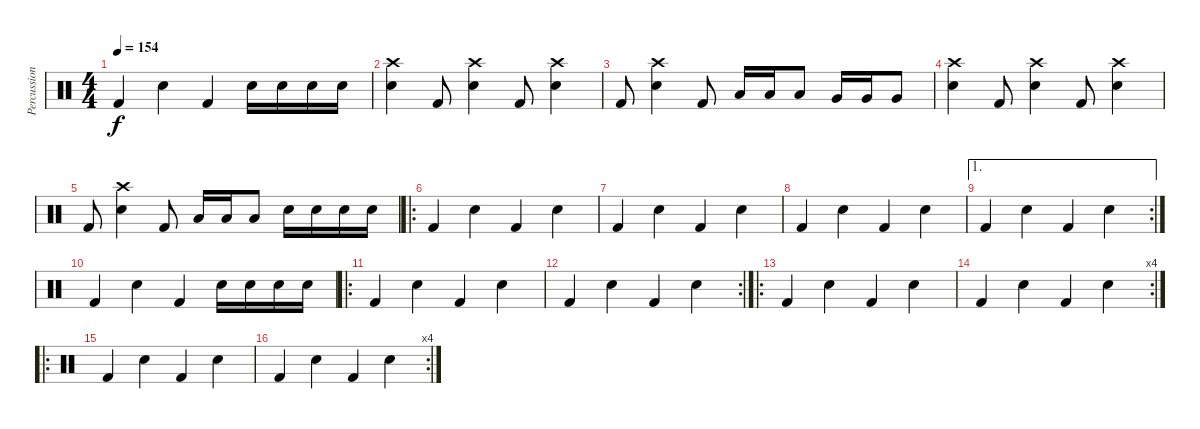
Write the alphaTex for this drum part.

\track ("Percussions" "Percussion") {instrument percussion}
\staff {score}
\articulation defaults
\ts (4 4)
\tempo 154
\clef neutral
\ks c "Kick (hit) 2".4{dy f} "Electric Snare (hit)".4 "Kick (hit) 2".4 "Electric Snare (hit)".16 "Electric Snare (hit)".16 "Electric Snare (hit)".16 "Electric Snare (hit)".16
|
("Crash high (hit)" "Electric Snare (hit)").4 "Kick (hit) 2".8 ("Crash high (hit)" "Electric Snare (hit)").4 "Kick (hit) 2".8 ("Crash high (hit)" "Electric Snare (hit)").4 |
"Kick (hit) 2".8 ("Crash high (hit)" "Electric Snare (hit)").4 "Kick (hit) 2".8 "Low Tom (hit)".16 "Low Tom (hit)".16 "Low Tom (hit)".8 "Very Low Tom (hit)".16 "Very Low Tom (hit)".16 "Very Low Tom (hit)".8 |
("Crash high (hit)" "Electric Snare (hit)").4 "Kick (hit) 2".8 ("Crash high (hit)" "Electric Snare (hit)").4 "Kick (hit) 2".8 ("Crash high (hit)" "Electric Snare (hit)").4 |
"Kick (hit) 2".8 ("Crash high (hit)" "Electric Snare (hit)").4 "Kick (hit) 2".8 "Low Tom (hit)".16 "Low Tom (hit)".16 "Low Tom (hit)".8 "Electric Snare (hit)".16 "Electric Snare (hit)".16 "Electric Snare (hit)".16 "Electric Snare (hit)".16 |
\ro "Kick (hit) 2".4 "Electric Snare (hit)".4 "Kick (hit) 2".4 "Electric Snare (hit)".4
|
"Kick (hit) 2".4 "Electric Snare (hit)".4 "Kick (hit) 2".4 "Electric Snare (hit)".4 |
"Kick (hit) 2".4 "Electric Snare (hit)".4 "Kick (hit) 2".4 "Electric Snare (hit)".4 |
\ae 1
\rc 2 "Kick (hit) 2".4 "Electric Snare (hit)".4 "Kick (hit) 2".4 "Electric Snare (hit)".4
|
"Kick (hit) 2".4 "Electric Snare (hit)".4 "Kick (hit) 2".4 "Electric Snare (hit)".16 "Electric Snare (hit)".16 "Electric Snare (hit)".16 "Electric Snare (hit)".16 |
\ro "Kick (hit) 2".4 "Electric Snare (hit)".4 "Kick (hit) 2".4 "Electric Snare (hit)".4
|
\rc 2 "Kick (hit) 2".4 "Electric Snare (hit)".4 "Kick (hit) 2".4 "Electric Snare (hit)".4
|
\ro "Kick (hit) 2".4 "Electric Snare (hit)".4 "Kick (hit) 2".4 "Electric Snare (hit)".4
|
\rc 4 "Kick (hit) 2".4 "Electric Snare (hit)".4 "Kick (hit) 2".4 "Electric Snare (hit)".4
|
\ro "Kick (hit) 2".4 "Electric Snare (hit)".4 "Kick (hit) 2".4 "Electric Snare (hit)".4
|
\rc 4 "Kick (hit) 2".4 "Electric Snare (hit)".4 "Kick (hit) 2".4 "Electric Snare (hit)".4
